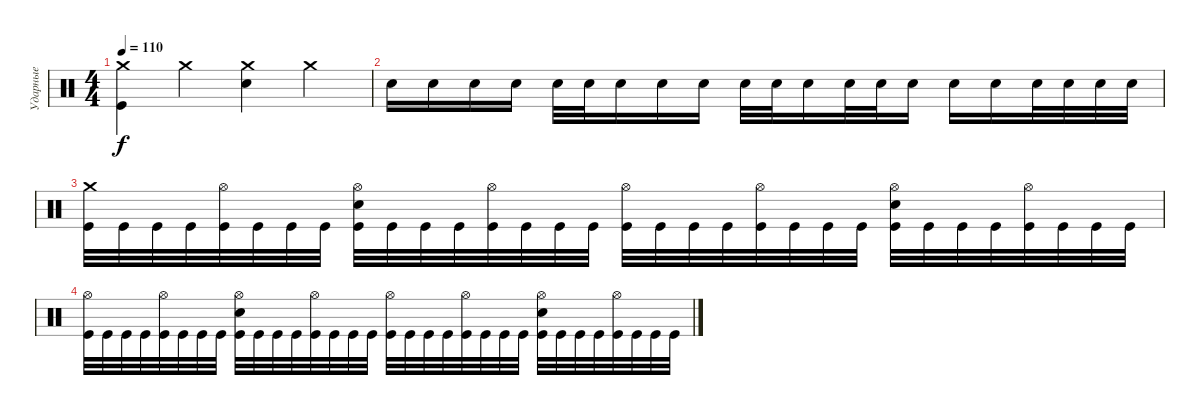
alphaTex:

\track ("Ударные" "Ударные") {instrument percussion}
\staff {score}
\articulation defaults
\ts (4 4)
\tempo 110
\clef neutral
\ks c
("Crash medium (hit)" "Kick (hit)").4{dy f} "Crash medium (hit)".4 ("Crash medium (hit)" "Snare (hit) 2").4 "Crash medium (hit)".4 |
"Snare (hit) 2".16 "Snare (hit) 2".16 "Snare (hit) 2".16 "Snare (hit) 2".16 "Snare (hit) 2".32 "Snare (hit) 2".32 "Snare (hit) 2".16 "Snare (hit) 2".16 "Snare (hit) 2".16 "Snare (hit) 2".32 "Snare (hit) 2".32 "Snare (hit) 2".16 "Snare (hit) 2".32 "Snare (hit) 2".32 "Snare (hit) 2".16 "Snare (hit) 2".16 "Snare (hit) 2".16 "Snare (hit) 2".32 "Snare (hit) 2".32 "Snare (hit) 2".32 "Snare (hit) 2".32 |
("Crash medium (hit)" "Kick (hit)").32 "Kick (hit)".32 "Kick (hit)".32 "Kick (hit)".32 ("Hi-Hat (open)" "Kick (hit)").32 "Kick (hit)".32 "Kick (hit)".32 "Kick (hit)".32 ("Hi-Hat (open)" "Snare (hit) 2" "Kick (hit)").32 "Kick (hit)".32 "Kick (hit)".32 "Kick (hit)".32 ("Hi-Hat (open)" "Kick (hit)").32 "Kick (hit)".32 "Kick (hit)".32 "Kick (hit)".32 ("Hi-Hat (open)" "Kick (hit)").32 "Kick (hit)".32 "Kick (hit)".32 "Kick (hit)".32 ("Hi-Hat (open)" "Kick (hit)").32 "Kick (hit)".32 "Kick (hit)".32 "Kick (hit)".32 ("Hi-Hat (open)" "Snare (hit) 2" "Kick (hit)").32 "Kick (hit)".32 "Kick (hit)".32 "Kick (hit)".32 ("Hi-Hat (open)" "Kick (hit)").32 "Kick (hit)".32 "Kick (hit)".32 "Kick (hit)".32 |
("Hi-Hat (open)" "Kick (hit)").32 "Kick (hit)".32 "Kick (hit)".32 "Kick (hit)".32 ("Hi-Hat (open)" "Kick (hit)").32 "Kick (hit)".32 "Kick (hit)".32 "Kick (hit)".32 ("Hi-Hat (open)" "Snare (hit) 2" "Kick (hit)").32 "Kick (hit)".32 "Kick (hit)".32 "Kick (hit)".32 ("Hi-Hat (open)" "Kick (hit)").32 "Kick (hit)".32 "Kick (hit)".32 "Kick (hit)".32 ("Hi-Hat (open)" "Kick (hit)").32 "Kick (hit)".32 "Kick (hit)".32 "Kick (hit)".32 ("Hi-Hat (open)" "Kick (hit)").32 "Kick (hit)".32 "Kick (hit)".32 "Kick (hit)".32 ("Hi-Hat (open)" "Snare (hit) 2" "Kick (hit)").32 "Kick (hit)".32 "Kick (hit)".32 "Kick (hit)".32 ("Hi-Hat (open)" "Kick (hit)").32 "Kick (hit)".32 "Kick (hit)".32 "Kick (hit)".32
